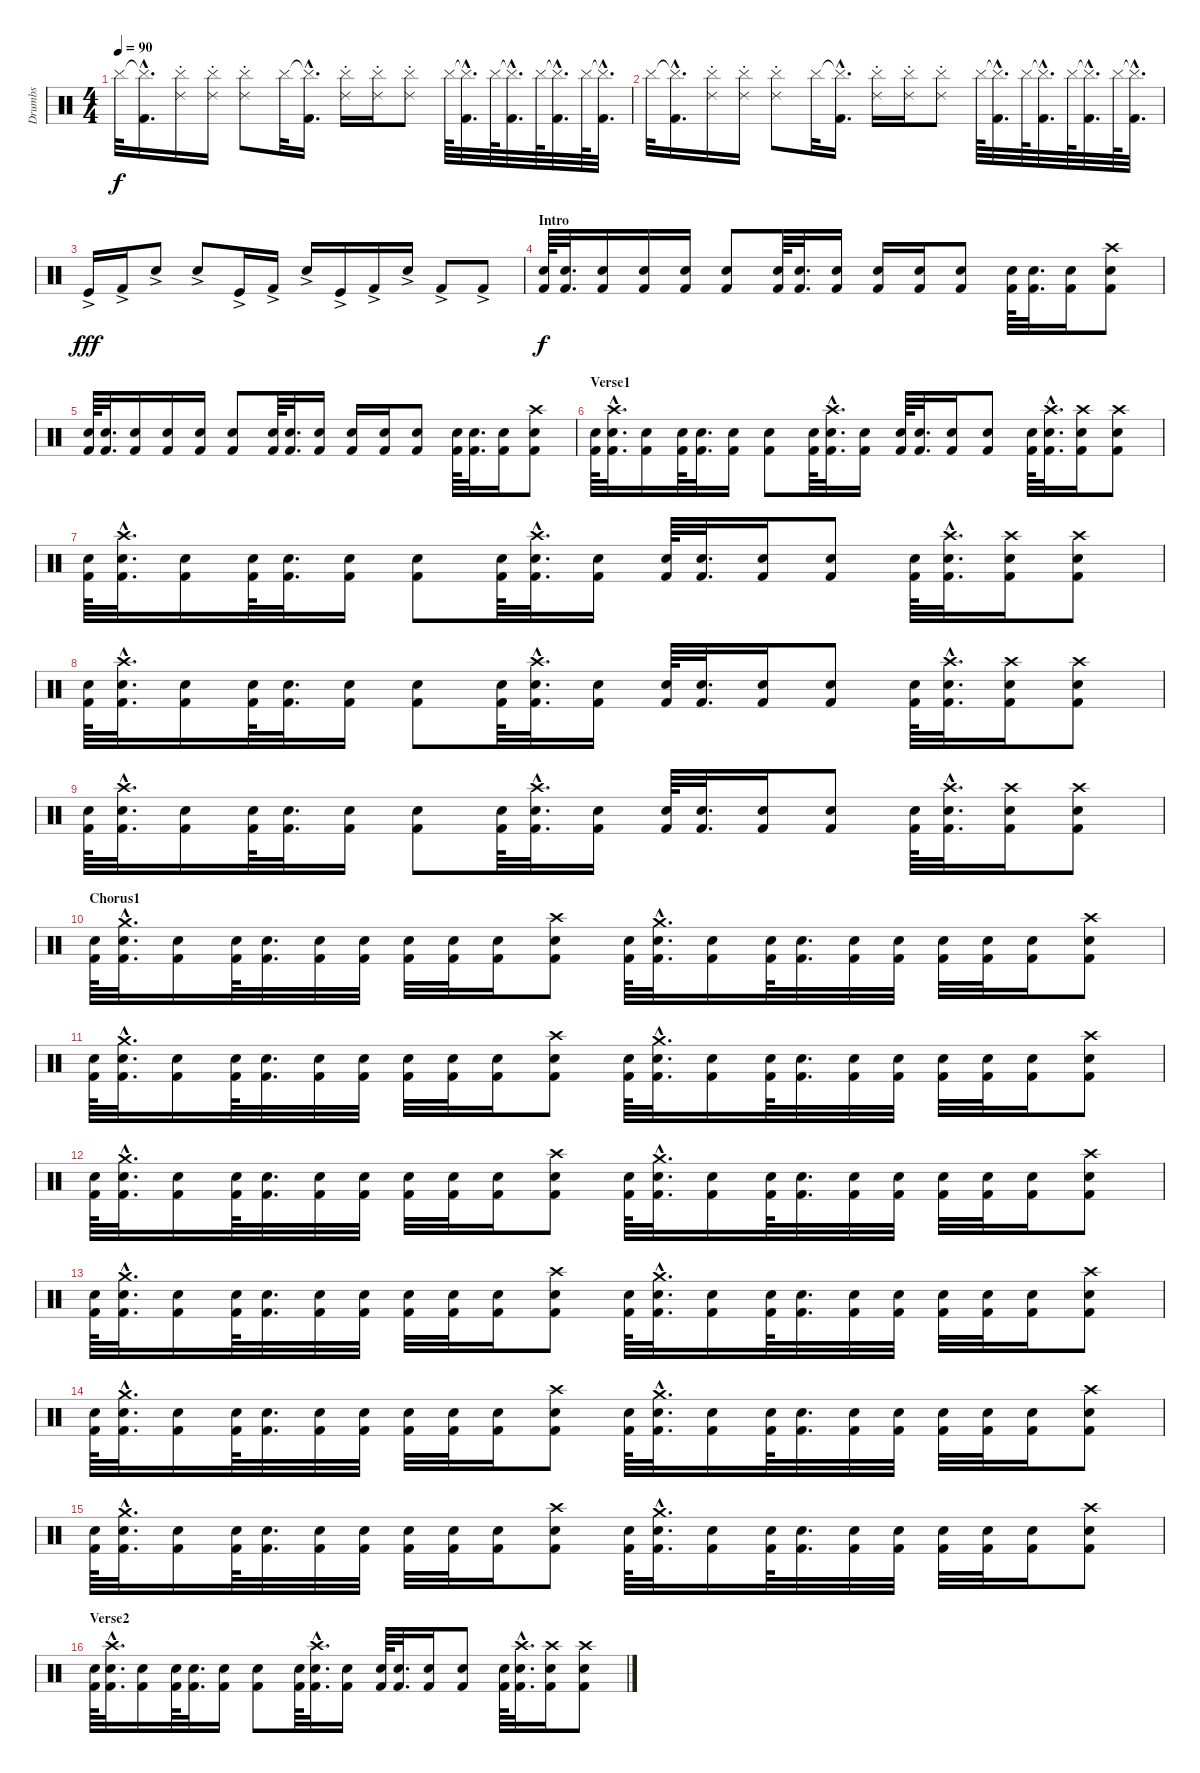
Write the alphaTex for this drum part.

\track ("Drumbs" "Drumbs") {instrument percussion}
\staff {score}
\articulation defaults
\ts (4 4)
\tempo 90
\clef neutral
\ks c "Cymbal (hit)".32{dy f}
("Cymbal (hit)"{hac t} "Kick (hit) 2"{hac}).16{d} ("Ride (choke) 2" "Cymbal (hit)").16 ("Cymbal (hit)" "Ride (choke) 2").16 ("Ride (choke) 2" "Cymbal (hit)").8 "Cymbal (hit)".32 ("Cymbal (hit)"{hac t} "Kick (hit) 2"{hac}).16{d} ("Ride (choke) 2" "Cymbal (hit)").16 ("Cymbal (hit)" "Ride (choke) 2").16 ("Ride (choke) 2" "Cymbal (hit)").8 "Cymbal (hit)".64 ("Cymbal (hit)"{hac t} "Kick (hit) 2"{hac}).32{d} "Cymbal (hit)".64 ("Cymbal (hit)"{hac t} "Kick (hit) 2"{hac}).32{d} "Cymbal (hit)".64 ("Cymbal (hit)"{hac t} "Kick (hit) 2"{hac}).32{d} "Cymbal (hit)".64 ("Cymbal (hit)"{hac t} "Kick (hit) 2"{hac}).32{d} |
"Cymbal (hit)".32 ("Cymbal (hit)"{hac t} "Kick (hit) 2"{hac}).16{d} ("Ride (choke) 2" "Cymbal (hit)").16 ("Cymbal (hit)" "Ride (choke) 2").16 ("Ride (choke) 2" "Cymbal (hit)").8 "Cymbal (hit)".32 ("Cymbal (hit)"{hac t} "Kick (hit) 2"{hac}).16{d} ("Ride (choke) 2" "Cymbal (hit)").16 ("Cymbal (hit)" "Ride (choke) 2").16 ("Ride (choke) 2" "Cymbal (hit)").8 "Cymbal (hit)".64 ("Cymbal (hit)"{hac t} "Kick (hit) 2"{hac}).32{d} "Cymbal (hit)".64 ("Cymbal (hit)"{hac t} "Kick (hit) 2"{hac}).32{d} "Cymbal (hit)".64 ("Cymbal (hit)"{hac t} "Kick (hit) 2"{hac}).32{d} "Cymbal (hit)".64 ("Cymbal (hit)"{hac t} "Kick (hit) 2"{hac}).32{d} |
"Kick (hit)"{ac}.16{dy fff} "Kick (hit) 2"{ac}.16 "Electric Snare (hit)"{ac}.8 "Electric Snare (hit)"{ac}.8 "Kick (hit)"{ac}.16 "Kick (hit) 2"{ac}.16 "Electric Snare (hit)"{ac}.16 "Kick (hit)"{ac}.16 "Kick (hit) 2"{ac}.16 "Electric Snare (hit)"{ac}.16 "Kick (hit) 2"{ac}.8 "Kick (hit) 2"{ac}.8 |
\section ("" "Intro")
("Electric Snare (hit)" "Kick (hit) 2").64{dy f} ("Electric Snare (hit)" "Kick (hit) 2").32{d} ("Electric Snare (hit)" "Kick (hit) 2").16 ("Electric Snare (hit)" "Kick (hit) 2").16 ("Electric Snare (hit)" "Kick (hit) 2").16 ("Electric Snare (hit)" "Kick (hit) 2").8 ("Electric Snare (hit)" "Kick (hit) 2").64 ("Electric Snare (hit)" "Kick (hit) 2").32{d} ("Electric Snare (hit)" "Kick (hit) 2").16 ("Electric Snare (hit)" "Kick (hit) 2").16 ("Electric Snare (hit)" "Kick (hit) 2").16 ("Electric Snare (hit)" "Kick (hit) 2").8 ("Electric Snare (hit)" "Kick (hit) 2").64 ("Electric Snare (hit)" "Kick (hit) 2").32{d} ("Electric Snare (hit)" "Kick (hit) 2").16 ("Electric Snare (hit)" "Kick (hit) 2" "Crash high (hit)").8 |
("Electric Snare (hit)" "Kick (hit) 2").64 ("Electric Snare (hit)" "Kick (hit) 2").32{d} ("Electric Snare (hit)" "Kick (hit) 2").16 ("Electric Snare (hit)" "Kick (hit) 2").16 ("Electric Snare (hit)" "Kick (hit) 2").16 ("Electric Snare (hit)" "Kick (hit) 2").8 ("Electric Snare (hit)" "Kick (hit) 2").64 ("Electric Snare (hit)" "Kick (hit) 2").32{d} ("Electric Snare (hit)" "Kick (hit) 2").16 ("Electric Snare (hit)" "Kick (hit) 2").16 ("Electric Snare (hit)" "Kick (hit) 2").16 ("Electric Snare (hit)" "Kick (hit) 2").8 ("Electric Snare (hit)" "Kick (hit) 2").64 ("Electric Snare (hit)" "Kick (hit) 2").32{d} ("Electric Snare (hit)" "Kick (hit) 2").16 ("Electric Snare (hit)" "Kick (hit) 2" "Crash high (hit)").8 |
\section ("" "Verse1")
("Electric Snare (hit)" "Kick (hit) 2").64 ("Electric Snare (hit)" "Kick (hit) 2" "Crash high (hit)"{hac}).32{d} ("Electric Snare (hit)" "Kick (hit) 2").16 ("Electric Snare (hit)" "Kick (hit) 2").64 ("Electric Snare (hit)" "Kick (hit) 2").32{d} ("Electric Snare (hit)" "Kick (hit) 2").16 ("Electric Snare (hit)" "Kick (hit) 2").8 ("Electric Snare (hit)" "Kick (hit) 2").64 ("Electric Snare (hit)" "Kick (hit) 2" "Crash high (hit)"{hac}).32{d} ("Electric Snare (hit)" "Kick (hit) 2").16 ("Electric Snare (hit)" "Kick (hit) 2").64 ("Electric Snare (hit)" "Kick (hit) 2").32{d} ("Electric Snare (hit)" "Kick (hit) 2").16 ("Electric Snare (hit)" "Kick (hit) 2").8 ("Electric Snare (hit)" "Kick (hit) 2").64 ("Electric Snare (hit)" "Kick (hit) 2" "Crash high (hit)"{hac}).32{d} ("Electric Snare (hit)" "Kick (hit) 2" "Crash high (hit)").16 ("Electric Snare (hit)" "Kick (hit) 2" "Crash high (hit)").8 |
("Electric Snare (hit)" "Kick (hit) 2").64 ("Electric Snare (hit)" "Kick (hit) 2" "Crash high (hit)"{hac}).32{d} ("Electric Snare (hit)" "Kick (hit) 2").16 ("Electric Snare (hit)" "Kick (hit) 2").64 ("Electric Snare (hit)" "Kick (hit) 2").32{d} ("Electric Snare (hit)" "Kick (hit) 2").16 ("Electric Snare (hit)" "Kick (hit) 2").8 ("Electric Snare (hit)" "Kick (hit) 2").64 ("Electric Snare (hit)" "Kick (hit) 2" "Crash high (hit)"{hac}).32{d} ("Electric Snare (hit)" "Kick (hit) 2").16 ("Electric Snare (hit)" "Kick (hit) 2").64 ("Electric Snare (hit)" "Kick (hit) 2").32{d} ("Electric Snare (hit)" "Kick (hit) 2").16 ("Electric Snare (hit)" "Kick (hit) 2").8 ("Electric Snare (hit)" "Kick (hit) 2").64 ("Electric Snare (hit)" "Kick (hit) 2" "Crash high (hit)"{hac}).32{d} ("Electric Snare (hit)" "Kick (hit) 2" "Crash high (hit)").16 ("Electric Snare (hit)" "Kick (hit) 2" "Crash high (hit)").8 |
("Electric Snare (hit)" "Kick (hit) 2").64 ("Electric Snare (hit)" "Kick (hit) 2" "Crash high (hit)"{hac}).32{d} ("Electric Snare (hit)" "Kick (hit) 2").16 ("Electric Snare (hit)" "Kick (hit) 2").64 ("Electric Snare (hit)" "Kick (hit) 2").32{d} ("Electric Snare (hit)" "Kick (hit) 2").16 ("Electric Snare (hit)" "Kick (hit) 2").8 ("Electric Snare (hit)" "Kick (hit) 2").64 ("Electric Snare (hit)" "Kick (hit) 2" "Crash high (hit)"{hac}).32{d} ("Electric Snare (hit)" "Kick (hit) 2").16 ("Electric Snare (hit)" "Kick (hit) 2").64 ("Electric Snare (hit)" "Kick (hit) 2").32{d} ("Electric Snare (hit)" "Kick (hit) 2").16 ("Electric Snare (hit)" "Kick (hit) 2").8 ("Electric Snare (hit)" "Kick (hit) 2").64 ("Electric Snare (hit)" "Kick (hit) 2" "Crash high (hit)"{hac}).32{d} ("Electric Snare (hit)" "Kick (hit) 2" "Crash high (hit)").16 ("Electric Snare (hit)" "Kick (hit) 2" "Crash high (hit)").8 |
("Electric Snare (hit)" "Kick (hit) 2").64 ("Electric Snare (hit)" "Kick (hit) 2" "Crash high (hit)"{hac}).32{d} ("Electric Snare (hit)" "Kick (hit) 2").16 ("Electric Snare (hit)" "Kick (hit) 2").64 ("Electric Snare (hit)" "Kick (hit) 2").32{d} ("Electric Snare (hit)" "Kick (hit) 2").16 ("Electric Snare (hit)" "Kick (hit) 2").8 ("Electric Snare (hit)" "Kick (hit) 2").64 ("Electric Snare (hit)" "Kick (hit) 2" "Crash high (hit)"{hac}).32{d} ("Electric Snare (hit)" "Kick (hit) 2").16 ("Electric Snare (hit)" "Kick (hit) 2").64 ("Electric Snare (hit)" "Kick (hit) 2").32{d} ("Electric Snare (hit)" "Kick (hit) 2").16 ("Electric Snare (hit)" "Kick (hit) 2").8 ("Electric Snare (hit)" "Kick (hit) 2").64 ("Electric Snare (hit)" "Kick (hit) 2" "Crash high (hit)"{hac}).32{d} ("Electric Snare (hit)" "Kick (hit) 2" "Crash high (hit)").16 ("Electric Snare (hit)" "Kick (hit) 2" "Crash high (hit)").8 |
\section ("" "Chorus1")
("Electric Snare (hit)" "Kick (hit) 2").64 ("Electric Snare (hit)" "Kick (hit) 2" "Crash medium (hit)"{hac}).32{d} ("Electric Snare (hit)" "Kick (hit) 2").16 ("Electric Snare (hit)" "Kick (hit) 2").64 ("Electric Snare (hit)" "Kick (hit) 2").32{d} ("Electric Snare (hit)" "Kick (hit) 2").32 ("Electric Snare (hit)" "Kick (hit) 2").32 ("Electric Snare (hit)" "Kick (hit) 2").32 ("Electric Snare (hit)" "Kick (hit) 2").32 ("Electric Snare (hit)" "Kick (hit) 2").16 ("Electric Snare (hit)" "Kick (hit) 2" "Crash high (hit)").8 ("Electric Snare (hit)" "Kick (hit) 2").64 ("Electric Snare (hit)" "Kick (hit) 2" "Crash medium (hit)"{hac}).32{d} ("Electric Snare (hit)" "Kick (hit) 2").16 ("Electric Snare (hit)" "Kick (hit) 2").64 ("Electric Snare (hit)" "Kick (hit) 2").32{d} ("Electric Snare (hit)" "Kick (hit) 2").32 ("Electric Snare (hit)" "Kick (hit) 2").32 ("Electric Snare (hit)" "Kick (hit) 2").32 ("Electric Snare (hit)" "Kick (hit) 2").32 ("Electric Snare (hit)" "Kick (hit) 2").16 ("Electric Snare (hit)" "Kick (hit) 2" "Crash high (hit)").8 |
("Electric Snare (hit)" "Kick (hit) 2").64 ("Electric Snare (hit)" "Kick (hit) 2" "Crash medium (hit)"{hac}).32{d} ("Electric Snare (hit)" "Kick (hit) 2").16 ("Electric Snare (hit)" "Kick (hit) 2").64 ("Electric Snare (hit)" "Kick (hit) 2").32{d} ("Electric Snare (hit)" "Kick (hit) 2").32 ("Electric Snare (hit)" "Kick (hit) 2").32 ("Electric Snare (hit)" "Kick (hit) 2").32 ("Electric Snare (hit)" "Kick (hit) 2").32 ("Electric Snare (hit)" "Kick (hit) 2").16 ("Electric Snare (hit)" "Kick (hit) 2" "Crash high (hit)").8 ("Electric Snare (hit)" "Kick (hit) 2").64 ("Electric Snare (hit)" "Kick (hit) 2" "Crash medium (hit)"{hac}).32{d} ("Electric Snare (hit)" "Kick (hit) 2").16 ("Electric Snare (hit)" "Kick (hit) 2").64 ("Electric Snare (hit)" "Kick (hit) 2").32{d} ("Electric Snare (hit)" "Kick (hit) 2").32 ("Electric Snare (hit)" "Kick (hit) 2").32 ("Electric Snare (hit)" "Kick (hit) 2").32 ("Electric Snare (hit)" "Kick (hit) 2").32 ("Electric Snare (hit)" "Kick (hit) 2").16 ("Electric Snare (hit)" "Kick (hit) 2" "Crash high (hit)").8 |
("Electric Snare (hit)" "Kick (hit) 2").64 ("Electric Snare (hit)" "Kick (hit) 2" "Crash medium (hit)"{hac}).32{d} ("Electric Snare (hit)" "Kick (hit) 2").16 ("Electric Snare (hit)" "Kick (hit) 2").64 ("Electric Snare (hit)" "Kick (hit) 2").32{d} ("Electric Snare (hit)" "Kick (hit) 2").32 ("Electric Snare (hit)" "Kick (hit) 2").32 ("Electric Snare (hit)" "Kick (hit) 2").32 ("Electric Snare (hit)" "Kick (hit) 2").32 ("Electric Snare (hit)" "Kick (hit) 2").16 ("Electric Snare (hit)" "Kick (hit) 2" "Crash high (hit)").8 ("Electric Snare (hit)" "Kick (hit) 2").64 ("Electric Snare (hit)" "Kick (hit) 2" "Crash medium (hit)"{hac}).32{d} ("Electric Snare (hit)" "Kick (hit) 2").16 ("Electric Snare (hit)" "Kick (hit) 2").64 ("Electric Snare (hit)" "Kick (hit) 2").32{d} ("Electric Snare (hit)" "Kick (hit) 2").32 ("Electric Snare (hit)" "Kick (hit) 2").32 ("Electric Snare (hit)" "Kick (hit) 2").32 ("Electric Snare (hit)" "Kick (hit) 2").32 ("Electric Snare (hit)" "Kick (hit) 2").16 ("Electric Snare (hit)" "Kick (hit) 2" "Crash high (hit)").8 |
("Electric Snare (hit)" "Kick (hit) 2").64 ("Electric Snare (hit)" "Kick (hit) 2" "Crash medium (hit)"{hac}).32{d} ("Electric Snare (hit)" "Kick (hit) 2").16 ("Electric Snare (hit)" "Kick (hit) 2").64 ("Electric Snare (hit)" "Kick (hit) 2").32{d} ("Electric Snare (hit)" "Kick (hit) 2").32 ("Electric Snare (hit)" "Kick (hit) 2").32 ("Electric Snare (hit)" "Kick (hit) 2").32 ("Electric Snare (hit)" "Kick (hit) 2").32 ("Electric Snare (hit)" "Kick (hit) 2").16 ("Electric Snare (hit)" "Kick (hit) 2" "Crash high (hit)").8 ("Electric Snare (hit)" "Kick (hit) 2").64 ("Electric Snare (hit)" "Kick (hit) 2" "Crash medium (hit)"{hac}).32{d} ("Electric Snare (hit)" "Kick (hit) 2").16 ("Electric Snare (hit)" "Kick (hit) 2").64 ("Electric Snare (hit)" "Kick (hit) 2").32{d} ("Electric Snare (hit)" "Kick (hit) 2").32 ("Electric Snare (hit)" "Kick (hit) 2").32 ("Electric Snare (hit)" "Kick (hit) 2").32 ("Electric Snare (hit)" "Kick (hit) 2").32 ("Electric Snare (hit)" "Kick (hit) 2").16 ("Electric Snare (hit)" "Kick (hit) 2" "Crash high (hit)").8 |
("Electric Snare (hit)" "Kick (hit) 2").64 ("Electric Snare (hit)" "Kick (hit) 2" "Crash medium (hit)"{hac}).32{d} ("Electric Snare (hit)" "Kick (hit) 2").16 ("Electric Snare (hit)" "Kick (hit) 2").64 ("Electric Snare (hit)" "Kick (hit) 2").32{d} ("Electric Snare (hit)" "Kick (hit) 2").32 ("Electric Snare (hit)" "Kick (hit) 2").32 ("Electric Snare (hit)" "Kick (hit) 2").32 ("Electric Snare (hit)" "Kick (hit) 2").32 ("Electric Snare (hit)" "Kick (hit) 2").16 ("Electric Snare (hit)" "Kick (hit) 2" "Crash high (hit)").8 ("Electric Snare (hit)" "Kick (hit) 2").64 ("Electric Snare (hit)" "Kick (hit) 2" "Crash medium (hit)"{hac}).32{d} ("Electric Snare (hit)" "Kick (hit) 2").16 ("Electric Snare (hit)" "Kick (hit) 2").64 ("Electric Snare (hit)" "Kick (hit) 2").32{d} ("Electric Snare (hit)" "Kick (hit) 2").32 ("Electric Snare (hit)" "Kick (hit) 2").32 ("Electric Snare (hit)" "Kick (hit) 2").32 ("Electric Snare (hit)" "Kick (hit) 2").32 ("Electric Snare (hit)" "Kick (hit) 2").16 ("Electric Snare (hit)" "Kick (hit) 2" "Crash high (hit)").8 |
("Electric Snare (hit)" "Kick (hit) 2").64 ("Electric Snare (hit)" "Kick (hit) 2" "Crash medium (hit)"{hac}).32{d} ("Electric Snare (hit)" "Kick (hit) 2").16 ("Electric Snare (hit)" "Kick (hit) 2").64 ("Electric Snare (hit)" "Kick (hit) 2").32{d} ("Electric Snare (hit)" "Kick (hit) 2").32 ("Electric Snare (hit)" "Kick (hit) 2").32 ("Electric Snare (hit)" "Kick (hit) 2").32 ("Electric Snare (hit)" "Kick (hit) 2").32 ("Electric Snare (hit)" "Kick (hit) 2").16 ("Electric Snare (hit)" "Kick (hit) 2" "Crash high (hit)").8 ("Electric Snare (hit)" "Kick (hit) 2").64 ("Electric Snare (hit)" "Kick (hit) 2" "Crash medium (hit)"{hac}).32{d} ("Electric Snare (hit)" "Kick (hit) 2").16 ("Electric Snare (hit)" "Kick (hit) 2").64 ("Electric Snare (hit)" "Kick (hit) 2").32{d} ("Electric Snare (hit)" "Kick (hit) 2").32 ("Electric Snare (hit)" "Kick (hit) 2").32 ("Electric Snare (hit)" "Kick (hit) 2").32 ("Electric Snare (hit)" "Kick (hit) 2").32 ("Electric Snare (hit)" "Kick (hit) 2").16 ("Electric Snare (hit)" "Kick (hit) 2" "Crash high (hit)").8 |
\section ("" "Verse2")
("Electric Snare (hit)" "Kick (hit) 2").64 ("Electric Snare (hit)" "Kick (hit) 2" "Crash high (hit)"{hac}).32{d} ("Electric Snare (hit)" "Kick (hit) 2").16 ("Electric Snare (hit)" "Kick (hit) 2").64 ("Electric Snare (hit)" "Kick (hit) 2").32{d} ("Electric Snare (hit)" "Kick (hit) 2").16 ("Electric Snare (hit)" "Kick (hit) 2").8 ("Electric Snare (hit)" "Kick (hit) 2").64 ("Electric Snare (hit)" "Kick (hit) 2" "Crash high (hit)"{hac}).32{d} ("Electric Snare (hit)" "Kick (hit) 2").16 ("Electric Snare (hit)" "Kick (hit) 2").64 ("Electric Snare (hit)" "Kick (hit) 2").32{d} ("Electric Snare (hit)" "Kick (hit) 2").16 ("Electric Snare (hit)" "Kick (hit) 2").8 ("Electric Snare (hit)" "Kick (hit) 2").64 ("Electric Snare (hit)" "Kick (hit) 2" "Crash high (hit)"{hac}).32{d} ("Electric Snare (hit)" "Kick (hit) 2" "Crash high (hit)").16 ("Electric Snare (hit)" "Kick (hit) 2" "Crash high (hit)").8
